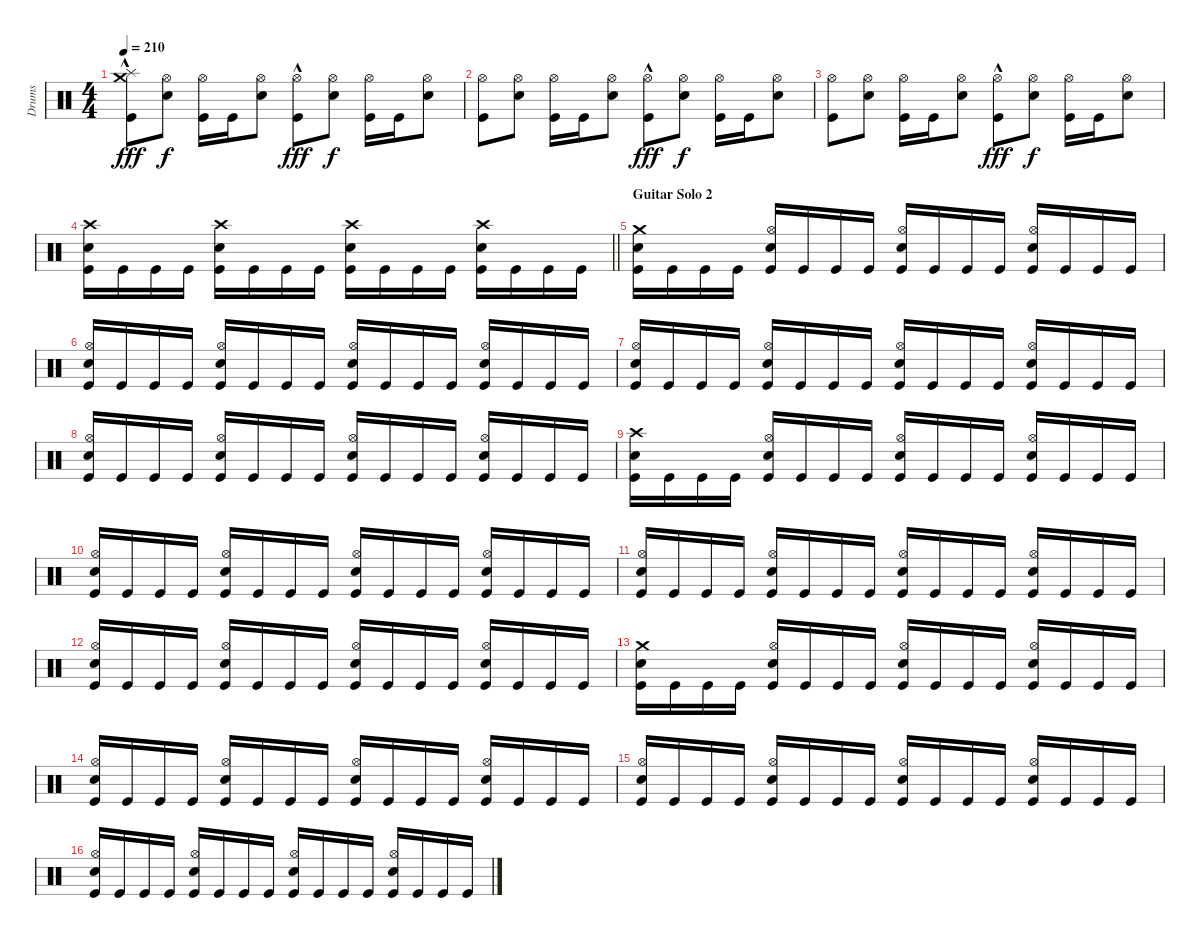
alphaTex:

\track ("Drums" "Drums") {instrument percussion}
\staff {score}
\articulation defaults
\ts (4 4)
\tempo 210
\clef neutral
\ks c
("Crash medium (hit)" "Splash (hit)" "Kick (hit)"{hac}).8{dy fff} ("Hi-Hat (open)" "Electric Snare (hit)").8{dy f} ("Hi-Hat (open)" "Kick (hit)").16 "Kick (hit)".16 ("Hi-Hat (open)" "Electric Snare (hit)").8 ("Hi-Hat (open)" "Kick (hit)"{hac}).8{dy fff} ("Hi-Hat (open)" "Electric Snare (hit)").8{dy f} ("Hi-Hat (open)" "Kick (hit)").16 "Kick (hit)".16 ("Hi-Hat (open)" "Electric Snare (hit)").8 |
("Hi-Hat (open)" "Kick (hit)").8 ("Hi-Hat (open)" "Electric Snare (hit)").8 ("Hi-Hat (open)" "Kick (hit)").16 "Kick (hit)".16 ("Hi-Hat (open)" "Electric Snare (hit)").8 ("Hi-Hat (open)" "Kick (hit)"{hac}).8{dy fff} ("Hi-Hat (open)" "Electric Snare (hit)").8{dy f} ("Hi-Hat (open)" "Kick (hit)").16 "Kick (hit)".16 ("Hi-Hat (open)" "Electric Snare (hit)").8 |
("Hi-Hat (open)" "Kick (hit)").8 ("Hi-Hat (open)" "Electric Snare (hit)").8 ("Hi-Hat (open)" "Kick (hit)").16 "Kick (hit)".16 ("Hi-Hat (open)" "Electric Snare (hit)").8 ("Hi-Hat (open)" "Kick (hit)"{hac}).8{dy fff} ("Hi-Hat (open)" "Electric Snare (hit)").8{dy f} ("Hi-Hat (open)" "Kick (hit)").16 "Kick (hit)".16 ("Hi-Hat (open)" "Electric Snare (hit)").8 |
\barLineRight lightlight
("Crash high (hit)" "Electric Snare (hit)" "Kick (hit)").16 "Kick (hit)".16 "Kick (hit)".16 "Kick (hit)".16 ("Crash high (hit)" "Electric Snare (hit)" "Kick (hit)").16 "Kick (hit)".16 "Kick (hit)".16 "Kick (hit)".16 ("Crash high (hit)" "Electric Snare (hit)" "Kick (hit)").16 "Kick (hit)".16 "Kick (hit)".16 "Kick (hit)".16 ("Crash high (hit)" "Electric Snare (hit)" "Kick (hit)").16 "Kick (hit)".16 "Kick (hit)".16 "Kick (hit)".16 |
\section ("" "Guitar Solo 2")
("Crash medium (hit)" "Electric Snare (hit)" "Kick (hit)").16 "Kick (hit)".16 "Kick (hit)".16 "Kick (hit)".16 ("Hi-Hat (open)" "Electric Snare (hit)" "Kick (hit)").16 "Kick (hit)".16 "Kick (hit)".16 "Kick (hit)".16 ("Hi-Hat (open)" "Electric Snare (hit)" "Kick (hit)").16 "Kick (hit)".16 "Kick (hit)".16 "Kick (hit)".16 ("Hi-Hat (open)" "Electric Snare (hit)" "Kick (hit)").16 "Kick (hit)".16 "Kick (hit)".16 "Kick (hit)".16 |
("Hi-Hat (open)" "Electric Snare (hit)" "Kick (hit)").16 "Kick (hit)".16 "Kick (hit)".16 "Kick (hit)".16 ("Hi-Hat (open)" "Electric Snare (hit)" "Kick (hit)").16 "Kick (hit)".16 "Kick (hit)".16 "Kick (hit)".16 ("Hi-Hat (open)" "Electric Snare (hit)" "Kick (hit)").16 "Kick (hit)".16 "Kick (hit)".16 "Kick (hit)".16 ("Hi-Hat (open)" "Electric Snare (hit)" "Kick (hit)").16 "Kick (hit)".16 "Kick (hit)".16 "Kick (hit)".16 |
("Hi-Hat (open)" "Electric Snare (hit)" "Kick (hit)").16 "Kick (hit)".16 "Kick (hit)".16 "Kick (hit)".16 ("Hi-Hat (open)" "Electric Snare (hit)" "Kick (hit)").16 "Kick (hit)".16 "Kick (hit)".16 "Kick (hit)".16 ("Hi-Hat (open)" "Electric Snare (hit)" "Kick (hit)").16 "Kick (hit)".16 "Kick (hit)".16 "Kick (hit)".16 ("Hi-Hat (open)" "Electric Snare (hit)" "Kick (hit)").16 "Kick (hit)".16 "Kick (hit)".16 "Kick (hit)".16 |
("Hi-Hat (open)" "Electric Snare (hit)" "Kick (hit)").16 "Kick (hit)".16 "Kick (hit)".16 "Kick (hit)".16 ("Hi-Hat (open)" "Electric Snare (hit)" "Kick (hit)").16 "Kick (hit)".16 "Kick (hit)".16 "Kick (hit)".16 ("Hi-Hat (open)" "Electric Snare (hit)" "Kick (hit)").16 "Kick (hit)".16 "Kick (hit)".16 "Kick (hit)".16 ("Hi-Hat (open)" "Electric Snare (hit)" "Kick (hit)").16 "Kick (hit)".16 "Kick (hit)".16 "Kick (hit)".16 |
("Crash high (hit)" "Electric Snare (hit)" "Kick (hit)").16 "Kick (hit)".16 "Kick (hit)".16 "Kick (hit)".16 ("Hi-Hat (open)" "Electric Snare (hit)" "Kick (hit)").16 "Kick (hit)".16 "Kick (hit)".16 "Kick (hit)".16 ("Hi-Hat (open)" "Electric Snare (hit)" "Kick (hit)").16 "Kick (hit)".16 "Kick (hit)".16 "Kick (hit)".16 ("Hi-Hat (open)" "Electric Snare (hit)" "Kick (hit)").16 "Kick (hit)".16 "Kick (hit)".16 "Kick (hit)".16 |
("Hi-Hat (open)" "Electric Snare (hit)" "Kick (hit)").16 "Kick (hit)".16 "Kick (hit)".16 "Kick (hit)".16 ("Hi-Hat (open)" "Electric Snare (hit)" "Kick (hit)").16 "Kick (hit)".16 "Kick (hit)".16 "Kick (hit)".16 ("Hi-Hat (open)" "Electric Snare (hit)" "Kick (hit)").16 "Kick (hit)".16 "Kick (hit)".16 "Kick (hit)".16 ("Hi-Hat (open)" "Electric Snare (hit)" "Kick (hit)").16 "Kick (hit)".16 "Kick (hit)".16 "Kick (hit)".16 |
("Hi-Hat (open)" "Electric Snare (hit)" "Kick (hit)").16 "Kick (hit)".16 "Kick (hit)".16 "Kick (hit)".16 ("Hi-Hat (open)" "Electric Snare (hit)" "Kick (hit)").16 "Kick (hit)".16 "Kick (hit)".16 "Kick (hit)".16 ("Hi-Hat (open)" "Electric Snare (hit)" "Kick (hit)").16 "Kick (hit)".16 "Kick (hit)".16 "Kick (hit)".16 ("Hi-Hat (open)" "Electric Snare (hit)" "Kick (hit)").16 "Kick (hit)".16 "Kick (hit)".16 "Kick (hit)".16 |
("Hi-Hat (open)" "Electric Snare (hit)" "Kick (hit)").16 "Kick (hit)".16 "Kick (hit)".16 "Kick (hit)".16 ("Hi-Hat (open)" "Electric Snare (hit)" "Kick (hit)").16 "Kick (hit)".16 "Kick (hit)".16 "Kick (hit)".16 ("Hi-Hat (open)" "Electric Snare (hit)" "Kick (hit)").16 "Kick (hit)".16 "Kick (hit)".16 "Kick (hit)".16 ("Hi-Hat (open)" "Electric Snare (hit)" "Kick (hit)").16 "Kick (hit)".16 "Kick (hit)".16 "Kick (hit)".16 |
("Crash medium (hit)" "Electric Snare (hit)" "Kick (hit)").16 "Kick (hit)".16 "Kick (hit)".16 "Kick (hit)".16 ("Hi-Hat (open)" "Electric Snare (hit)" "Kick (hit)").16 "Kick (hit)".16 "Kick (hit)".16 "Kick (hit)".16 ("Hi-Hat (open)" "Electric Snare (hit)" "Kick (hit)").16 "Kick (hit)".16 "Kick (hit)".16 "Kick (hit)".16 ("Hi-Hat (open)" "Electric Snare (hit)" "Kick (hit)").16 "Kick (hit)".16 "Kick (hit)".16 "Kick (hit)".16 |
("Hi-Hat (open)" "Electric Snare (hit)" "Kick (hit)").16 "Kick (hit)".16 "Kick (hit)".16 "Kick (hit)".16 ("Hi-Hat (open)" "Electric Snare (hit)" "Kick (hit)").16 "Kick (hit)".16 "Kick (hit)".16 "Kick (hit)".16 ("Hi-Hat (open)" "Electric Snare (hit)" "Kick (hit)").16 "Kick (hit)".16 "Kick (hit)".16 "Kick (hit)".16 ("Hi-Hat (open)" "Electric Snare (hit)" "Kick (hit)").16 "Kick (hit)".16 "Kick (hit)".16 "Kick (hit)".16 |
("Hi-Hat (open)" "Electric Snare (hit)" "Kick (hit)").16 "Kick (hit)".16 "Kick (hit)".16 "Kick (hit)".16 ("Hi-Hat (open)" "Electric Snare (hit)" "Kick (hit)").16 "Kick (hit)".16 "Kick (hit)".16 "Kick (hit)".16 ("Hi-Hat (open)" "Electric Snare (hit)" "Kick (hit)").16 "Kick (hit)".16 "Kick (hit)".16 "Kick (hit)".16 ("Hi-Hat (open)" "Electric Snare (hit)" "Kick (hit)").16 "Kick (hit)".16 "Kick (hit)".16 "Kick (hit)".16 |
("Hi-Hat (open)" "Electric Snare (hit)" "Kick (hit)").16 "Kick (hit)".16 "Kick (hit)".16 "Kick (hit)".16 ("Hi-Hat (open)" "Electric Snare (hit)" "Kick (hit)").16 "Kick (hit)".16 "Kick (hit)".16 "Kick (hit)".16 ("Hi-Hat (open)" "Electric Snare (hit)" "Kick (hit)").16 "Kick (hit)".16 "Kick (hit)".16 "Kick (hit)".16 ("Hi-Hat (open)" "Electric Snare (hit)" "Kick (hit)").16 "Kick (hit)".16 "Kick (hit)".16 "Kick (hit)".16
